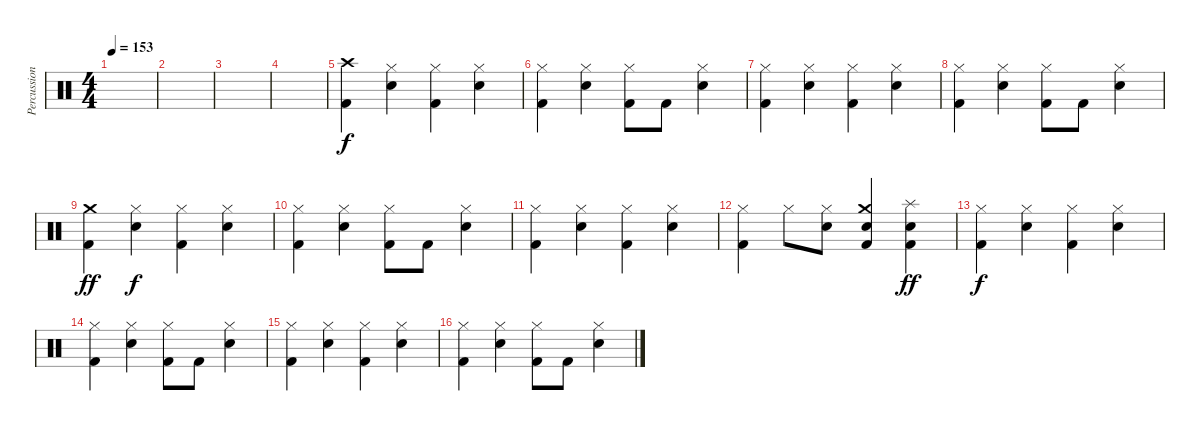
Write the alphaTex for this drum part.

\track ("Percussion" "Percussion") {instrument percussion}
\staff {score}
\articulation defaults
\ts (4 4)
\tempo 153
\clef neutral
\ks c
|
|
|
|
("Crash high (hit)" "Kick (hit) 2").4 ("Hi-Hat (closed)" "Electric Snare (hit)").4 ("Hi-Hat (closed)" "Kick (hit) 2").4 ("Hi-Hat (closed)" "Electric Snare (hit)").4 |
("Hi-Hat (closed)" "Kick (hit) 2").4 ("Hi-Hat (closed)" "Electric Snare (hit)").4 ("Hi-Hat (closed)" "Kick (hit) 2").8 "Kick (hit) 2".8 ("Hi-Hat (closed)" "Electric Snare (hit)").4 |
("Hi-Hat (closed)" "Kick (hit) 2").4 ("Hi-Hat (closed)" "Electric Snare (hit)").4 ("Hi-Hat (closed)" "Kick (hit) 2").4 ("Hi-Hat (closed)" "Electric Snare (hit)").4 |
("Hi-Hat (closed)" "Kick (hit) 2").4 ("Hi-Hat (closed)" "Electric Snare (hit)").4 ("Hi-Hat (closed)" "Kick (hit) 2").8 "Kick (hit) 2".8 ("Hi-Hat (closed)" "Electric Snare (hit)").4 |
("Crash medium (hit)" "Kick (hit) 2").4{dy ff} ("Hi-Hat (closed)" "Electric Snare (hit)").4{dy f} ("Hi-Hat (closed)" "Kick (hit) 2").4 ("Hi-Hat (closed)" "Electric Snare (hit)").4 |
("Hi-Hat (closed)" "Kick (hit) 2").4 ("Hi-Hat (closed)" "Electric Snare (hit)").4 ("Hi-Hat (closed)" "Kick (hit) 2").8 "Kick (hit) 2".8 ("Hi-Hat (closed)" "Electric Snare (hit)").4 |
("Hi-Hat (closed)" "Kick (hit) 2").4 ("Hi-Hat (closed)" "Electric Snare (hit)").4 ("Hi-Hat (closed)" "Kick (hit) 2").4 ("Hi-Hat (closed)" "Electric Snare (hit)").4 |
("Hi-Hat (closed)" "Kick (hit) 2").4 "Hi-Hat (closed)".8 ("Hi-Hat (closed)" "Electric Snare (hit)").8 ("Crash medium (hit)" "Snare (hit) 2" "Kick (hit) 2").4 ("Splash (hit)" "Electric Snare (hit)" "Kick (hit) 2").4{dy ff} |
("Hi-Hat (closed)" "Kick (hit) 2").4{dy f} ("Hi-Hat (closed)" "Electric Snare (hit)").4 ("Hi-Hat (closed)" "Kick (hit) 2").4 ("Hi-Hat (closed)" "Electric Snare (hit)").4 |
("Hi-Hat (closed)" "Kick (hit) 2").4 ("Hi-Hat (closed)" "Electric Snare (hit)").4 ("Hi-Hat (closed)" "Kick (hit) 2").8 "Kick (hit) 2".8 ("Hi-Hat (closed)" "Electric Snare (hit)").4 |
("Hi-Hat (closed)" "Kick (hit) 2").4 ("Hi-Hat (closed)" "Electric Snare (hit)").4 ("Hi-Hat (closed)" "Kick (hit) 2").4 ("Hi-Hat (closed)" "Electric Snare (hit)").4 |
("Hi-Hat (closed)" "Kick (hit) 2").4 ("Hi-Hat (closed)" "Electric Snare (hit)").4 ("Hi-Hat (closed)" "Kick (hit) 2").8 "Kick (hit) 2".8 ("Hi-Hat (closed)" "Electric Snare (hit)").4
